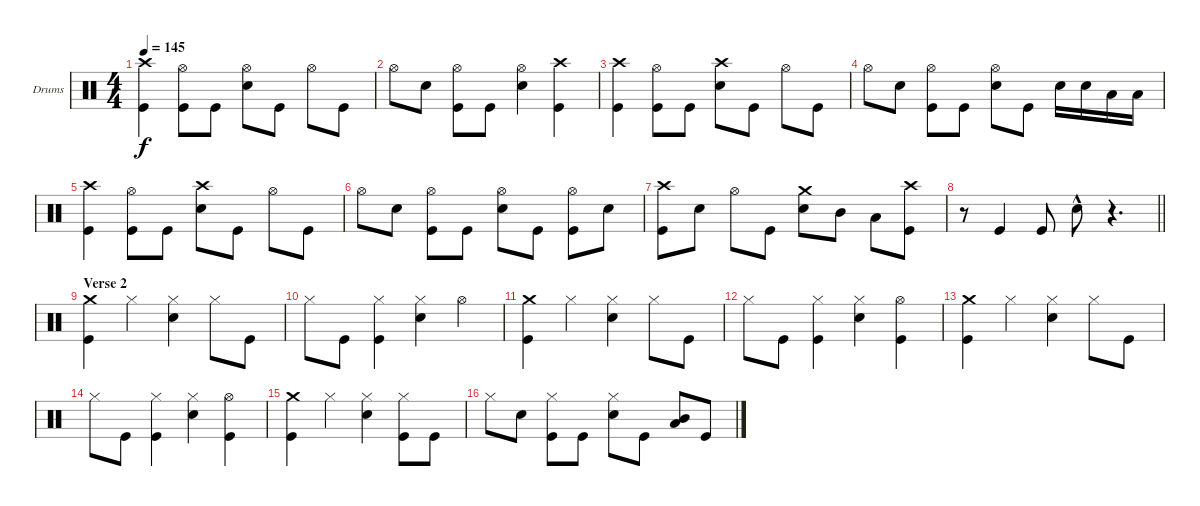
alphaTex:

\bracketExtendMode groupsimilarinstruments
\firstSystemTrackNameOrientation horizontal
\otherSystemsTrackNameOrientation horizontal
\track ("drums (Anton Zulganov)" "Drums") {instrument percussion}
\staff {score}
\articulation defaults
\ts (4 4)
\tempo 145
\clef neutral
\ks aminor
("Kick (hit)" "Crash high (hit)").4{dy f} ("Hi-Hat (open)" "Kick (hit)").8 "Kick (hit)".8 ("Hi-Hat (open)" "Snare (hit) 2").8 "Kick (hit)".8 "Hi-Hat (open)".8 "Kick (hit)".8 |
"Hi-Hat (open)".8 "Snare (hit) 2".8 ("Hi-Hat (open)" "Kick (hit)").8 "Kick (hit)".8 ("Hi-Hat (open)" "Snare (hit) 2").4 ("Kick (hit)" "Crash high (hit)").4 |
("Kick (hit)" "Crash high (hit)").4 ("Hi-Hat (open)" "Kick (hit)").8 "Kick (hit)".8 ("Snare (hit) 2" "Crash high (hit)").8 "Kick (hit)".8 "Hi-Hat (open)".8 "Kick (hit)".8 |
"Hi-Hat (open)".8 "Snare (hit) 2".8 ("Hi-Hat (open)" "Kick (hit)").8 "Kick (hit)".8 ("Hi-Hat (open)" "Snare (hit) 2").8 "Kick (hit)".8 "Snare (hit) 2".16 "Snare (hit) 2".16 "Low Tom (hit)".16 "Low Tom (hit)".16 |
("Kick (hit)" "Crash high (hit)").4 ("Hi-Hat (open)" "Kick (hit)").8 "Kick (hit)".8 ("Snare (hit) 2" "Crash high (hit)").8 "Kick (hit)".8 "Hi-Hat (open)".8 "Kick (hit)".8 |
"Hi-Hat (open)".8 "Snare (hit) 2".8 ("Hi-Hat (open)" "Kick (hit)").8 "Kick (hit)".8 ("Hi-Hat (open)" "Snare (hit) 2").8 "Kick (hit)".8 ("Hi-Hat (open)" "Kick (hit)").8 "Snare (hit) 2".8 |
("Kick (hit)" "Crash high (hit)").8 "Snare (hit) 2".8 "Hi-Hat (open)".8 "Kick (hit)".8 ("Snare (hit) 2" "Crash medium (hit)").8 "Mid Tom (hit)".8 "Low Tom (hit)".8 ("Kick (hit)" "Crash high (hit)").8 |
\barLineRight lightlight
r.8 "Kick (hit)".4 "Kick (hit)".8 "Snare (hit) 2"{hac}.8 r.4{d} |
\section ("" "Verse 2")
("Kick (hit)" "Crash medium (hit)").4 "Hi-Hat (closed)".4 ("Hi-Hat (closed)" "Snare (hit) 2").4 "Hi-Hat (closed)".8 "Kick (hit)".8 |
"Hi-Hat (closed)".8 "Kick (hit)".8 ("Hi-Hat (closed)" "Kick (hit)").4 ("Hi-Hat (closed)" "Snare (hit) 2").4 "Hi-Hat (open)".4 |
("Kick (hit)" "Crash medium (hit)").4 "Hi-Hat (closed)".4 ("Hi-Hat (closed)" "Snare (hit) 2").4 "Hi-Hat (closed)".8 "Kick (hit)".8 |
"Hi-Hat (closed)".8 "Kick (hit)".8 ("Hi-Hat (closed)" "Kick (hit)").4 ("Hi-Hat (closed)" "Snare (hit) 2").4 ("Hi-Hat (open)" "Kick (hit)").4 |
("Kick (hit)" "Crash medium (hit)").4 "Hi-Hat (closed)".4 ("Hi-Hat (closed)" "Snare (hit) 2").4 "Hi-Hat (closed)".8 "Kick (hit)".8 |
"Hi-Hat (closed)".8 "Kick (hit)".8 ("Hi-Hat (closed)" "Kick (hit)").4 ("Hi-Hat (closed)" "Snare (hit) 2").4 ("Hi-Hat (open)" "Kick (hit)").4 |
("Kick (hit)" "Crash medium (hit)").4 "Hi-Hat (closed)".4 ("Hi-Hat (closed)" "Snare (hit) 2").4 ("Hi-Hat (closed)" "Kick (hit)").8 "Kick (hit)".8 |
"Hi-Hat (closed)".8 "Snare (hit) 2".8 ("Hi-Hat (closed)" "Kick (hit)").8 "Kick (hit)".8 ("Hi-Hat (closed)" "Snare (hit) 2").8 "Kick (hit)".8 ("Mid Tom (hit)" "Low Tom (hit)").8 "Kick (hit)".8
